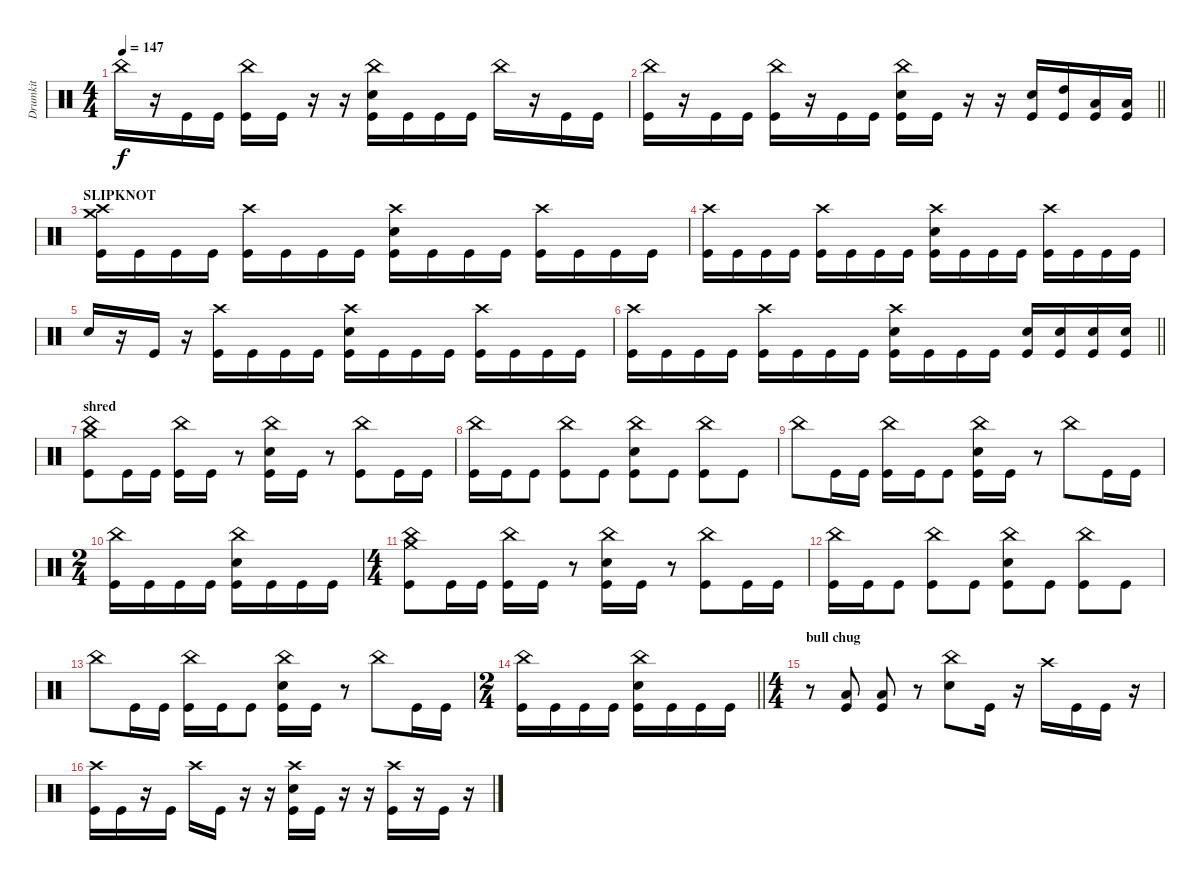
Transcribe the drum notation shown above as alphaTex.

\track ("Drumkit" "Drumkit") {instrument percussion}
\staff {score}
\articulation defaults
\ts (4 4)
\tempo 147
\clef neutral
\ks c "China (hit)".16{dy f}
r.16 "Kick (hit)".16 "Kick (hit)".16 ("China (hit)" "Kick (hit)").16 "Kick (hit)".16 r.16 r.16 ("China (hit)" "Snare (hit) 2" "Kick (hit)").16 "Kick (hit)".16 "Kick (hit)".16 "Kick (hit)".16 "China (hit)".16 r.16 "Kick (hit)".16 "Kick (hit)".16 |
\barLineRight lightlight
("China (hit)" "Kick (hit)").16 r.16 "Kick (hit)".16 "Kick (hit)".16 ("China (hit)" "Kick (hit)").16 r.16 "Kick (hit)".16 "Kick (hit)".16 ("China (hit)" "Snare (hit) 2" "Kick (hit)").16 "Kick (hit)".16 r.16 r.16 ("Snare (hit) 2" "Kick (hit)").16 ("High Tom (hit)" "Kick (hit)").16 ("Low Tom (hit)" "Kick (hit)").16 ("Low Tom (hit)" "Kick (hit)").16 |
\section ("" "SLIPKNOT")
("Crash medium (hit)" "Crash high (hit)" "Kick (hit)").16 "Kick (hit)".16 "Kick (hit)".16 "Kick (hit)".16 ("Crash high (hit)" "Kick (hit)").16 "Kick (hit)".16 "Kick (hit)".16 "Kick (hit)".16 ("Crash high (hit)" "Snare (hit) 2" "Kick (hit)").16 "Kick (hit)".16 "Kick (hit)".16 "Kick (hit)".16 ("Crash high (hit)" "Kick (hit)").16 "Kick (hit)".16 "Kick (hit)".16 "Kick (hit)".16 |
("Crash high (hit)" "Kick (hit)").16 "Kick (hit)".16 "Kick (hit)".16 "Kick (hit)".16 ("Crash high (hit)" "Kick (hit)").16 "Kick (hit)".16 "Kick (hit)".16 "Kick (hit)".16 ("Crash high (hit)" "Snare (hit) 2" "Kick (hit)").16 "Kick (hit)".16 "Kick (hit)".16 "Kick (hit)".16 ("Crash high (hit)" "Kick (hit)").16 "Kick (hit)".16 "Kick (hit)".16 "Kick (hit)".16 |
"Snare (hit) 2".16 r.16 "Kick (hit)".16 r.16 ("Crash high (hit)" "Kick (hit)").16 "Kick (hit)".16 "Kick (hit)".16 "Kick (hit)".16 ("Crash high (hit)" "Snare (hit) 2" "Kick (hit)").16 "Kick (hit)".16 "Kick (hit)".16 "Kick (hit)".16 ("Crash high (hit)" "Kick (hit)").16 "Kick (hit)".16 "Kick (hit)".16 "Kick (hit)".16 |
\barLineRight lightlight
("Crash high (hit)" "Kick (hit)").16 "Kick (hit)".16 "Kick (hit)".16 "Kick (hit)".16 ("Crash high (hit)" "Kick (hit)").16 "Kick (hit)".16 "Kick (hit)".16 "Kick (hit)".16 ("Crash high (hit)" "Snare (hit) 2" "Kick (hit)").16 "Kick (hit)".16 "Kick (hit)".16 "Kick (hit)".16 ("Snare (hit) 2" "Kick (hit)").16 ("Snare (hit) 2" "Kick (hit)").16 ("Snare (hit) 2" "Kick (hit)").16 ("Snare (hit) 2" "Kick (hit)").16 |
\section ("" "shred")
("Crash medium (hit)" "China (hit)" "Kick (hit)").8 "Kick (hit)".16 "Kick (hit)".16 ("China (hit)" "Kick (hit)").16 "Kick (hit)".16 r.8 ("China (hit)" "Snare (hit) 2" "Kick (hit)").16 "Kick (hit)".16 r.8 ("China (hit)" "Kick (hit)").8 "Kick (hit)".16 "Kick (hit)".16 |
("China (hit)" "Kick (hit)").16 "Kick (hit)".16 "Kick (hit)".8 ("China (hit)" "Kick (hit)").8 "Kick (hit)".8 ("China (hit)" "Snare (hit) 2" "Kick (hit)").8 "Kick (hit)".8 ("China (hit)" "Kick (hit)").8 "Kick (hit)".8 |
"China (hit)".8 "Kick (hit)".16 "Kick (hit)".16 ("China (hit)" "Kick (hit)").16 "Kick (hit)".16 "Kick (hit)".8 ("China (hit)" "Snare (hit) 2" "Kick (hit)").16 "Kick (hit)".16 r.8 "China (hit)".8 "Kick (hit)".16 "Kick (hit)".16 |
\ts (2 4)
("China (hit)" "Kick (hit)").16 "Kick (hit)".16 "Kick (hit)".16 "Kick (hit)".16 ("China (hit)" "Snare (hit) 2" "Kick (hit)").16 "Kick (hit)".16 "Kick (hit)".16 "Kick (hit)".16 |
\ts (4 4)
("Crash medium (hit)" "China (hit)" "Kick (hit)").8 "Kick (hit)".16 "Kick (hit)".16 ("China (hit)" "Kick (hit)").16 "Kick (hit)".16 r.8 ("China (hit)" "Snare (hit) 2" "Kick (hit)").16 "Kick (hit)".16 r.8 ("China (hit)" "Kick (hit)").8 "Kick (hit)".16 "Kick (hit)".16 |
("China (hit)" "Kick (hit)").16 "Kick (hit)".16 "Kick (hit)".8 ("China (hit)" "Kick (hit)").8 "Kick (hit)".8 ("China (hit)" "Snare (hit) 2" "Kick (hit)").8 "Kick (hit)".8 ("China (hit)" "Kick (hit)").8 "Kick (hit)".8 |
"China (hit)".8 "Kick (hit)".16 "Kick (hit)".16 ("China (hit)" "Kick (hit)").16 "Kick (hit)".16 "Kick (hit)".8 ("China (hit)" "Snare (hit) 2" "Kick (hit)").16 "Kick (hit)".16 r.8 "China (hit)".8 "Kick (hit)".16 "Kick (hit)".16 |
\ts (2 4)
\barLineRight lightlight
("China (hit)" "Kick (hit)").16 "Kick (hit)".16 "Kick (hit)".16 "Kick (hit)".16 ("China (hit)" "Snare (hit) 2" "Kick (hit)").16 "Kick (hit)".16 "Kick (hit)".16 "Kick (hit)".16 |
\ts (4 4)
\section ("" "bull chug")
r.8 ("Low Tom (hit)" "Kick (hit)").8 ("Low Tom (hit)" "Kick (hit)").8 r.8 ("China (hit)" "Snare (hit) 2").8 "Kick (hit)".16 r.16 "Crash high (hit)".16 "Kick (hit)".16 "Kick (hit)".16 r.16 |
("Crash high (hit)" "Kick (hit)").16 "Kick (hit)".16 r.16 "Kick (hit)".16 "Crash high (hit)".16 "Kick (hit)".16 r.16 r.16 ("Crash high (hit)" "Snare (hit) 2" "Kick (hit)").16 "Kick (hit)".16 r.16 r.16 ("Crash high (hit)" "Kick (hit)").16 r.16 "Kick (hit)".16 r.16
